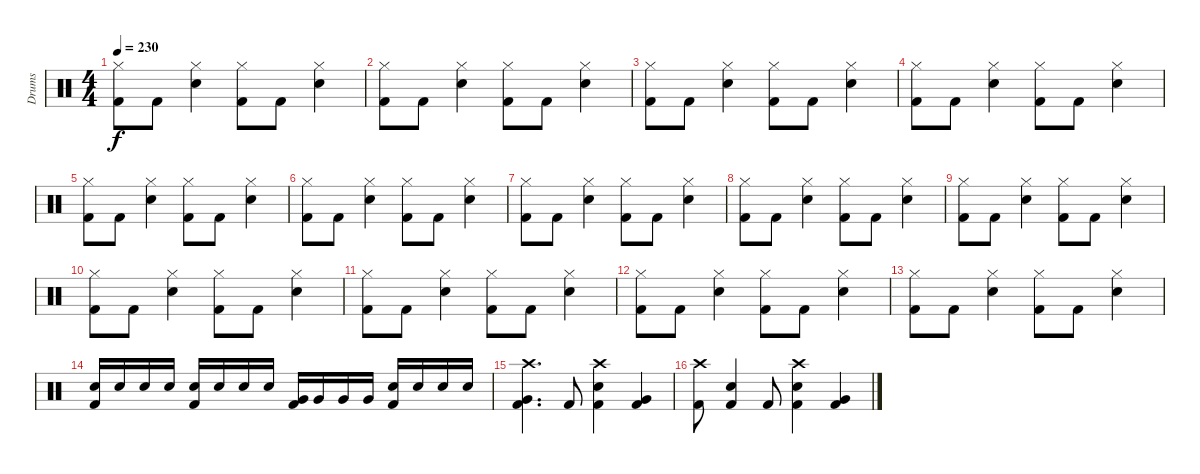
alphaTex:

\track ("Drums" "Drums") {instrument percussion}
\staff {score}
\articulation defaults
\ts (4 4)
\tempo 230
\clef neutral
\ks c
("Kick (hit) 2" "Hi-Hat (closed)").8{dy f} "Kick (hit) 2".8 ("Snare (hit) 2" "Hi-Hat (closed)").4 ("Kick (hit) 2" "Hi-Hat (closed)").8 "Kick (hit) 2".8 ("Snare (hit) 2" "Hi-Hat (closed)").4 |
("Kick (hit) 2" "Hi-Hat (closed)").8 "Kick (hit) 2".8 ("Snare (hit) 2" "Hi-Hat (closed)").4 ("Kick (hit) 2" "Hi-Hat (closed)").8 "Kick (hit) 2".8 ("Snare (hit) 2" "Hi-Hat (closed)").4 |
("Kick (hit) 2" "Hi-Hat (closed)").8 "Kick (hit) 2".8 ("Snare (hit) 2" "Hi-Hat (closed)").4 ("Kick (hit) 2" "Hi-Hat (closed)").8 "Kick (hit) 2".8 ("Snare (hit) 2" "Hi-Hat (closed)").4 |
("Kick (hit) 2" "Hi-Hat (closed)").8 "Kick (hit) 2".8 ("Snare (hit) 2" "Hi-Hat (closed)").4 ("Kick (hit) 2" "Hi-Hat (closed)").8 "Kick (hit) 2".8 ("Snare (hit) 2" "Hi-Hat (closed)").4 |
("Kick (hit) 2" "Hi-Hat (closed)").8 "Kick (hit) 2".8 ("Snare (hit) 2" "Hi-Hat (closed)").4 ("Kick (hit) 2" "Hi-Hat (closed)").8 "Kick (hit) 2".8 ("Snare (hit) 2" "Hi-Hat (closed)").4 |
("Kick (hit) 2" "Hi-Hat (closed)").8 "Kick (hit) 2".8 ("Snare (hit) 2" "Hi-Hat (closed)").4 ("Kick (hit) 2" "Hi-Hat (closed)").8 "Kick (hit) 2".8 ("Snare (hit) 2" "Hi-Hat (closed)").4 |
("Kick (hit) 2" "Hi-Hat (closed)").8 "Kick (hit) 2".8 ("Snare (hit) 2" "Hi-Hat (closed)").4 ("Kick (hit) 2" "Hi-Hat (closed)").8 "Kick (hit) 2".8 ("Snare (hit) 2" "Hi-Hat (closed)").4 |
("Kick (hit) 2" "Hi-Hat (closed)").8 "Kick (hit) 2".8 ("Snare (hit) 2" "Hi-Hat (closed)").4 ("Kick (hit) 2" "Hi-Hat (closed)").8 "Kick (hit) 2".8 ("Snare (hit) 2" "Hi-Hat (closed)").4 |
("Kick (hit) 2" "Hi-Hat (closed)").8 "Kick (hit) 2".8 ("Snare (hit) 2" "Hi-Hat (closed)").4 ("Kick (hit) 2" "Hi-Hat (closed)").8 "Kick (hit) 2".8 ("Snare (hit) 2" "Hi-Hat (closed)").4 |
("Kick (hit) 2" "Hi-Hat (closed)").8 "Kick (hit) 2".8 ("Snare (hit) 2" "Hi-Hat (closed)").4 ("Kick (hit) 2" "Hi-Hat (closed)").8 "Kick (hit) 2".8 ("Snare (hit) 2" "Hi-Hat (closed)").4 |
("Kick (hit) 2" "Hi-Hat (closed)").8 "Kick (hit) 2".8 ("Snare (hit) 2" "Hi-Hat (closed)").4 ("Kick (hit) 2" "Hi-Hat (closed)").8 "Kick (hit) 2".8 ("Snare (hit) 2" "Hi-Hat (closed)").4 |
("Kick (hit) 2" "Hi-Hat (closed)").8 "Kick (hit) 2".8 ("Snare (hit) 2" "Hi-Hat (closed)").4 ("Kick (hit) 2" "Hi-Hat (closed)").8 "Kick (hit) 2".8 ("Snare (hit) 2" "Hi-Hat (closed)").4 |
("Kick (hit) 2" "Hi-Hat (closed)").8 "Kick (hit) 2".8 ("Snare (hit) 2" "Hi-Hat (closed)").4 ("Kick (hit) 2" "Hi-Hat (closed)").8 "Kick (hit) 2".8 ("Snare (hit) 2" "Hi-Hat (closed)").4 |
("Snare (hit) 2" "Kick (hit) 2").16 "Snare (hit) 2".16 "Snare (hit) 2".16 "Snare (hit) 2".16 ("Snare (hit) 2" "Kick (hit) 2").16 "Snare (hit) 2".16 "Snare (hit) 2".16 "Snare (hit) 2".16 ("Very Low Tom (hit)" "Kick (hit) 2").16 "Very Low Tom (hit)".16 "Very Low Tom (hit)".16 "Very Low Tom (hit)".16 ("Snare (hit) 2" "Kick (hit) 2").16 "Snare (hit) 2".16 "Snare (hit) 2".16 "Snare (hit) 2".16 |
("Very Low Tom (hit)" "Kick (hit) 2" "Crash high (hit)").4{d} "Kick (hit) 2".8 ("Snare (hit) 2" "Kick (hit) 2" "Crash high (hit)").4 ("Very Low Tom (hit)" "Kick (hit) 2").4 |
("Kick (hit) 2" "Crash high (hit)").8 ("Snare (hit) 2" "Kick (hit) 2").4 "Kick (hit) 2".8 ("Snare (hit) 2" "Kick (hit) 2" "Crash high (hit)").4 ("Very Low Tom (hit)" "Kick (hit) 2").4
